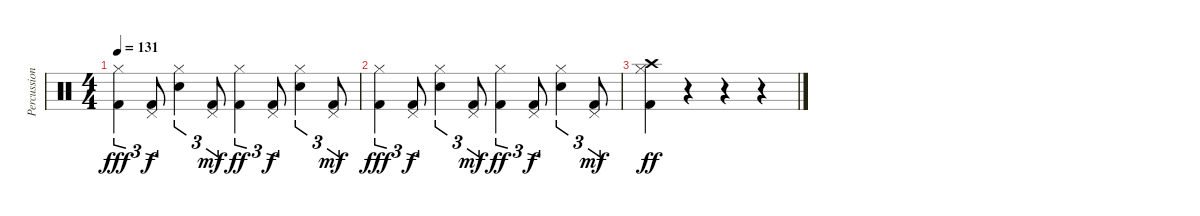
\track ("Percussion" "Percussion") {instrument percussion}
\staff {score}
\articulation defaults
\ts (4 4)
\tempo 131
\clef neutral
\ks c
("Hi-Hat (closed)" "Kick (hit) 2").4{tu (3 2) dy fff} ("Pedal Hi-Hat (hit)" "Kick (hit) 2").8{tu (3 2) dy f} ("Hi-Hat (closed)" "Electric Snare (hit)").4{tu (3 2)} ("Pedal Hi-Hat (hit)" "Kick (hit) 2").8{tu (3 2) dy mf} ("Hi-Hat (closed)" "Kick (hit) 2").4{tu (3 2) dy ff} ("Pedal Hi-Hat (hit)" "Kick (hit) 2").8{tu (3 2) dy f} ("Hi-Hat (closed)" "Electric Snare (hit)").4{tu (3 2)} ("Pedal Hi-Hat (hit)" "Kick (hit) 2").8{tu (3 2) dy mf} |
("Hi-Hat (closed)" "Kick (hit) 2").4{tu (3 2) dy fff} ("Pedal Hi-Hat (hit)" "Kick (hit) 2").8{tu (3 2) dy f} ("Hi-Hat (closed)" "Electric Snare (hit)").4{tu (3 2)} ("Pedal Hi-Hat (hit)" "Kick (hit) 2").8{tu (3 2) dy mf} ("Hi-Hat (closed)" "Kick (hit) 2").4{tu (3 2) dy ff} ("Pedal Hi-Hat (hit)" "Kick (hit) 2").8{tu (3 2) dy f} ("Hi-Hat (closed)" "Electric Snare (hit)").4{tu (3 2)} ("Pedal Hi-Hat (hit)" "Kick (hit) 2").8{tu (3 2) dy mf} |
("Hi-Hat (closed)" "Crash high (hit)" "Kick (hit) 2").4{dy ff} r.4 r.4 r.4
